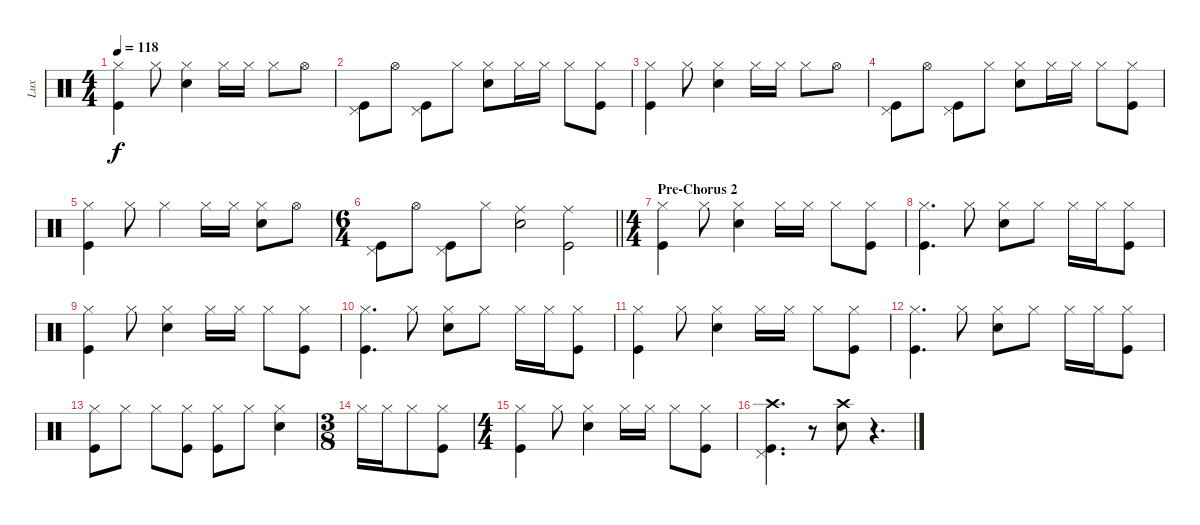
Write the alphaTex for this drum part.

\track ("Lux" "Lux") {instrument percussion}
\staff {score}
\articulation defaults
\ts (4 4)
\tempo 118
\clef neutral
\ks c
("Hi-Hat (closed)" "Kick (hit)").4{dy f} "Hi-Hat (closed)".8 ("Hi-Hat (closed)" "Snare (hit) 2").4 "Hi-Hat (closed)".16 "Hi-Hat (closed)".16 "Hi-Hat (closed)".8 "Hi-Hat (open)".8 |
("Kick (hit)" "Pedal Hi-Hat (hit)").8 "Hi-Hat (open)".8 ("Kick (hit)" "Pedal Hi-Hat (hit)").8 "Hi-Hat (closed)".8 ("Hi-Hat (closed)" "Snare (hit) 2").8 "Hi-Hat (closed)".16 "Hi-Hat (closed)".16 "Hi-Hat (closed)".8 ("Hi-Hat (closed)" "Kick (hit)").8 |
("Hi-Hat (closed)" "Kick (hit)").4 "Hi-Hat (closed)".8 ("Hi-Hat (closed)" "Snare (hit) 2").4 "Hi-Hat (closed)".16 "Hi-Hat (closed)".16 "Hi-Hat (closed)".8 "Hi-Hat (open)".8 |
("Kick (hit)" "Pedal Hi-Hat (hit)").8 "Hi-Hat (open)".8 ("Kick (hit)" "Pedal Hi-Hat (hit)").8 "Hi-Hat (closed)".8 ("Hi-Hat (closed)" "Snare (hit) 2").8 "Hi-Hat (closed)".16 "Hi-Hat (closed)".16 "Hi-Hat (closed)".8 ("Hi-Hat (closed)" "Kick (hit)").8 |
("Hi-Hat (closed)" "Kick (hit)").4 "Hi-Hat (closed)".8 "Hi-Hat (closed)".4 "Hi-Hat (closed)".16 "Hi-Hat (closed)".16 ("Hi-Hat (closed)" "Snare (hit) 2").8 "Hi-Hat (open)".8 |
\ts (6 4)
\barLineRight lightlight
("Kick (hit)" "Pedal Hi-Hat (hit)").8 "Hi-Hat (open)".8 ("Kick (hit)" "Pedal Hi-Hat (hit)").8 "Hi-Hat (closed)".8 ("Ride (middle)" "Snare (hit) 2").2 ("Ride (middle)" "Kick (hit)").2 |
\ts (4 4)
\section ("" "Pre-Chorus 2")
("Hi-Hat (closed)" "Kick (hit)").4 "Hi-Hat (closed)".8 ("Hi-Hat (closed)" "Snare (hit) 2").4 "Hi-Hat (closed)".16 "Hi-Hat (closed)".16 "Hi-Hat (closed)".8 ("Hi-Hat (closed)" "Kick (hit)").8 |
("Hi-Hat (closed)" "Kick (hit)").4{d} "Hi-Hat (closed)".8 ("Hi-Hat (closed)" "Snare (hit) 2").8 "Hi-Hat (closed)".8 "Hi-Hat (closed)".16 "Hi-Hat (closed)".16 ("Hi-Hat (closed)" "Kick (hit)").8 |
("Hi-Hat (closed)" "Kick (hit)").4 "Hi-Hat (closed)".8 ("Hi-Hat (closed)" "Snare (hit) 2").4 "Hi-Hat (closed)".16 "Hi-Hat (closed)".16 "Hi-Hat (closed)".8 ("Hi-Hat (closed)" "Kick (hit)").8 |
("Hi-Hat (closed)" "Kick (hit)").4{d} "Hi-Hat (closed)".8 ("Hi-Hat (closed)" "Snare (hit) 2").8 "Hi-Hat (closed)".8 "Hi-Hat (closed)".16 "Hi-Hat (closed)".16 ("Hi-Hat (closed)" "Kick (hit)").8 |
("Hi-Hat (closed)" "Kick (hit)").4 "Hi-Hat (closed)".8 ("Hi-Hat (closed)" "Snare (hit) 2").4 "Hi-Hat (closed)".16 "Hi-Hat (closed)".16 "Hi-Hat (closed)".8 ("Hi-Hat (closed)" "Kick (hit)").8 |
("Hi-Hat (closed)" "Kick (hit)").4{d} "Hi-Hat (closed)".8 ("Hi-Hat (closed)" "Snare (hit) 2").8 "Hi-Hat (closed)".8 "Hi-Hat (closed)".16 "Hi-Hat (closed)".16 ("Hi-Hat (closed)" "Kick (hit)").8 |
("Hi-Hat (closed)" "Kick (hit)").8 "Hi-Hat (closed)".8 "Hi-Hat (closed)".8 ("Hi-Hat (closed)" "Kick (hit)").8 ("Hi-Hat (closed)" "Kick (hit)").8 "Hi-Hat (closed)".8 ("Hi-Hat (closed)" "Snare (hit) 2").4 |
\ts (3 8)
"Hi-Hat (closed)".16 "Hi-Hat (closed)".16 "Hi-Hat (closed)".8 ("Hi-Hat (closed)" "Kick (hit)").8 |
\ts (4 4)
("Hi-Hat (closed)" "Kick (hit)").4 "Hi-Hat (closed)".8 ("Hi-Hat (closed)" "Snare (hit) 2").4 "Hi-Hat (closed)".16 "Hi-Hat (closed)".16 "Hi-Hat (closed)".8 ("Hi-Hat (closed)" "Kick (hit)").8 |
("Crash high (hit)" "Kick (hit)" "Pedal Hi-Hat (hit)").4{d} r.8 ("Crash high (hit)" "Snare (hit) 2").8 r.4{d}
